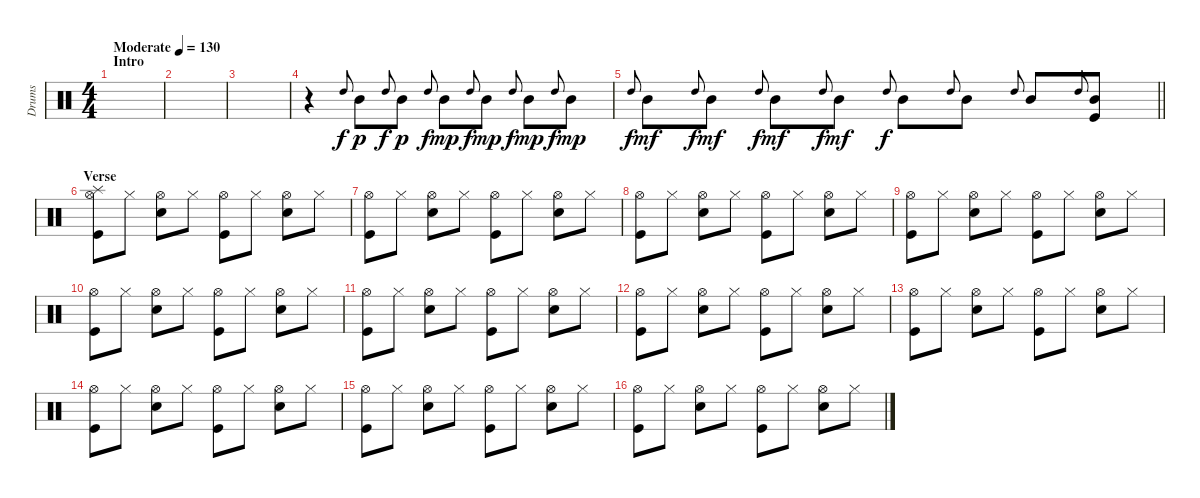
\track ("Drums" "Drums") {instrument percussion}
\staff {score}
\articulation defaults
\ts (4 4)
\section ("" "Intro")
\tempo (130 "Moderate")
\clef neutral
\ks c
|
|
|
r.4 "High Tom (hit)".8{gr onbeat} "Mid Tom (hit)".8{dy p} "High Tom (hit)".8{gr onbeat dy f} "Mid Tom (hit)".8{dy p} "High Tom (hit)".8{gr onbeat dy f} "Mid Tom (hit)".8{dy mp} "High Tom (hit)".8{gr onbeat dy f} "Mid Tom (hit)".8{dy mp} "High Tom (hit)".8{gr onbeat dy f} "Mid Tom (hit)".8{dy mp} "High Tom (hit)".8{gr onbeat dy f} "Mid Tom (hit)".8{dy mp} |
\barLineRight lightlight "High Tom (hit)".8{gr onbeat dy f} "Mid Tom (hit)".8{dy mf} "High Tom (hit)".8{gr onbeat dy f} "Mid Tom (hit)".8{dy mf} "High Tom (hit)".8{gr onbeat dy f} "Mid Tom (hit)".8{dy mf} "High Tom (hit)".8{gr onbeat dy f} "Mid Tom (hit)".8{dy mf} "High Tom (hit)".8{gr onbeat dy f} "Mid Tom (hit)".8 "High Tom (hit)".8{gr onbeat} "Mid Tom (hit)".8 "High Tom (hit)".8{gr onbeat} "Mid Tom (hit)".8 "High Tom (hit)".8{gr onbeat}
("Mid Tom (hit)" "Kick (hit)").8 |
\section ("" "Verse")
("Splash (hit)" "Hi-Hat (open)" "Kick (hit)").8 "Hi-Hat (closed)".8 ("Electric Snare (hit)" "Hi-Hat (open)").8 "Hi-Hat (closed)".8 ("Hi-Hat (open)" "Kick (hit)").8 "Hi-Hat (closed)".8 ("Electric Snare (hit)" "Hi-Hat (open)").8 "Hi-Hat (closed)".8 |
("Hi-Hat (open)" "Kick (hit)").8 "Hi-Hat (closed)".8 ("Electric Snare (hit)" "Hi-Hat (open)").8 "Hi-Hat (closed)".8 ("Hi-Hat (open)" "Kick (hit)").8 "Hi-Hat (closed)".8 ("Electric Snare (hit)" "Hi-Hat (open)").8 "Hi-Hat (closed)".8 |
("Hi-Hat (open)" "Kick (hit)").8 "Hi-Hat (closed)".8 ("Electric Snare (hit)" "Hi-Hat (open)").8 "Hi-Hat (closed)".8 ("Hi-Hat (open)" "Kick (hit)").8 "Hi-Hat (closed)".8 ("Electric Snare (hit)" "Hi-Hat (open)").8 "Hi-Hat (closed)".8 |
("Hi-Hat (open)" "Kick (hit)").8 "Hi-Hat (closed)".8 ("Electric Snare (hit)" "Hi-Hat (open)").8 "Hi-Hat (closed)".8 ("Hi-Hat (open)" "Kick (hit)").8 "Hi-Hat (closed)".8 ("Electric Snare (hit)" "Hi-Hat (open)").8 "Hi-Hat (closed)".8 |
("Hi-Hat (open)" "Kick (hit)").8 "Hi-Hat (closed)".8 ("Electric Snare (hit)" "Hi-Hat (open)").8 "Hi-Hat (closed)".8 ("Hi-Hat (open)" "Kick (hit)").8 "Hi-Hat (closed)".8 ("Electric Snare (hit)" "Hi-Hat (open)").8 "Hi-Hat (closed)".8 |
("Hi-Hat (open)" "Kick (hit)").8 "Hi-Hat (closed)".8 ("Electric Snare (hit)" "Hi-Hat (open)").8 "Hi-Hat (closed)".8 ("Hi-Hat (open)" "Kick (hit)").8 "Hi-Hat (closed)".8 ("Electric Snare (hit)" "Hi-Hat (open)").8 "Hi-Hat (closed)".8 |
("Hi-Hat (open)" "Kick (hit)").8 "Hi-Hat (closed)".8 ("Electric Snare (hit)" "Hi-Hat (open)").8 "Hi-Hat (closed)".8 ("Hi-Hat (open)" "Kick (hit)").8 "Hi-Hat (closed)".8 ("Electric Snare (hit)" "Hi-Hat (open)").8 "Hi-Hat (closed)".8 |
("Hi-Hat (open)" "Kick (hit)").8 "Hi-Hat (closed)".8 ("Electric Snare (hit)" "Hi-Hat (open)").8 "Hi-Hat (closed)".8 ("Hi-Hat (open)" "Kick (hit)").8 "Hi-Hat (closed)".8 ("Electric Snare (hit)" "Hi-Hat (open)").8 "Hi-Hat (closed)".8 |
("Hi-Hat (open)" "Kick (hit)").8 "Hi-Hat (closed)".8 ("Electric Snare (hit)" "Hi-Hat (open)").8 "Hi-Hat (closed)".8 ("Hi-Hat (open)" "Kick (hit)").8 "Hi-Hat (closed)".8 ("Electric Snare (hit)" "Hi-Hat (open)").8 "Hi-Hat (closed)".8 |
("Hi-Hat (open)" "Kick (hit)").8 "Hi-Hat (closed)".8 ("Electric Snare (hit)" "Hi-Hat (open)").8 "Hi-Hat (closed)".8 ("Hi-Hat (open)" "Kick (hit)").8 "Hi-Hat (closed)".8 ("Electric Snare (hit)" "Hi-Hat (open)").8 "Hi-Hat (closed)".8 |
("Hi-Hat (open)" "Kick (hit)").8 "Hi-Hat (closed)".8 ("Electric Snare (hit)" "Hi-Hat (open)").8 "Hi-Hat (closed)".8 ("Hi-Hat (open)" "Kick (hit)").8 "Hi-Hat (closed)".8 ("Electric Snare (hit)" "Hi-Hat (open)").8 "Hi-Hat (closed)".8
